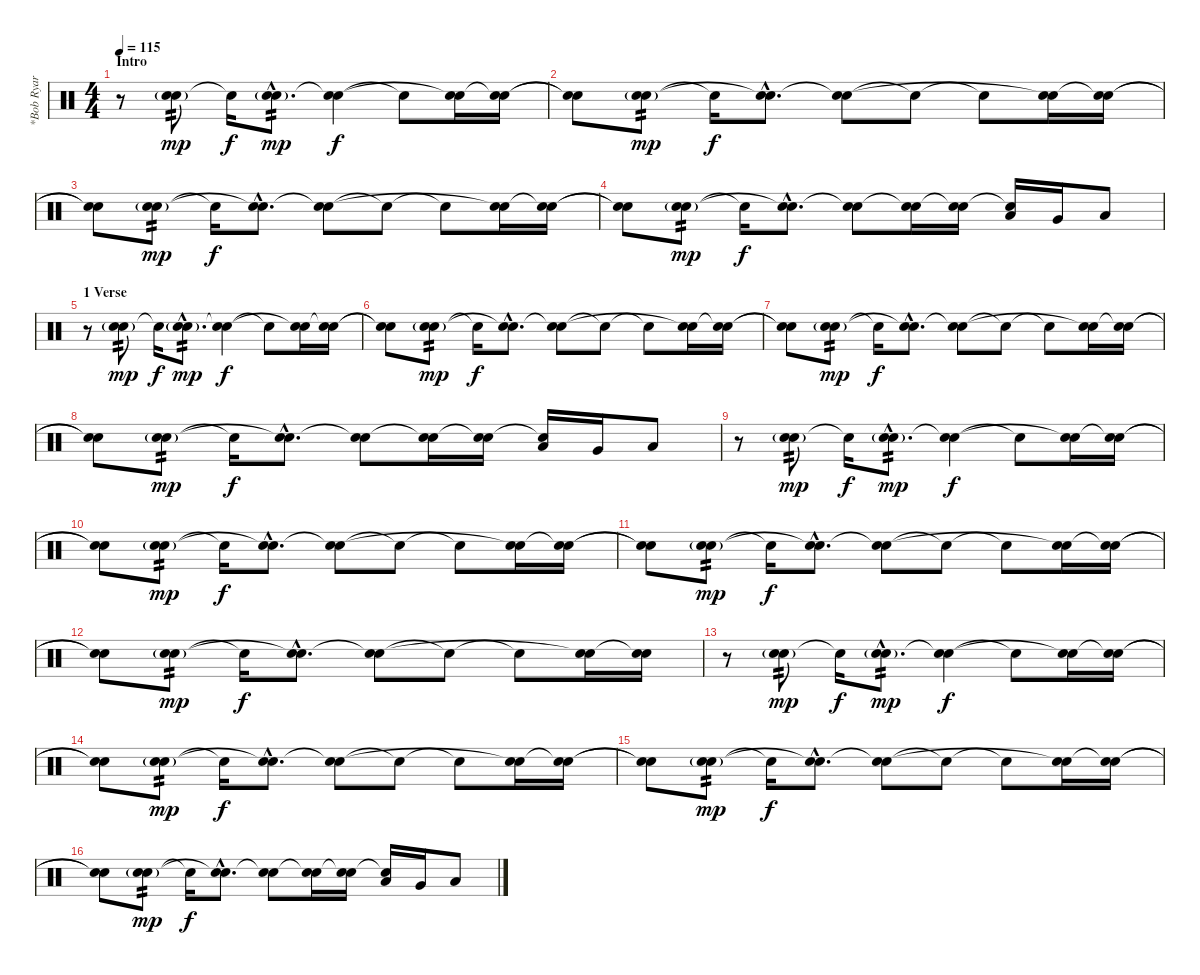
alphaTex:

\track ("*Bob Ryar (Drums)" "*Bob Ryar ") {instrument percussion}
\staff {score}
\articulation defaults
\ts (4 4)
\section ("" "Intro")
\tempo 115
\clef neutral
\ks c
r.8{dy mp} ("Electric Snare (hit)" "Electric Snare (hit)"{g}).8{tp 2} "Snare (hit)"{t}.16{dy f} ("Electric Snare (hit)"{hac} "Electric Snare (hit)"{g hac}).8{d tp 2 dy mp} ("Electric Snare (hit)" "Snare (hit)"{t}).4{dy f} "Snare (hit)"{t}.8 ("Electric Snare (hit)" "Snare (hit)"{t}).16 ("Electric Snare (hit)" "Electric Snare (hit)"{t}).16 |
("Electric Snare (hit)"{t} "Snare (hit)"{t}).8 ("Electric Snare (hit)" "Electric Snare (hit)"{g}).8{tp 2 dy mp} "Snare (hit)"{t}.16{dy f} ("Electric Snare (hit)"{hac} "Snare (hit)"{hac t}).8{d} ("Electric Snare (hit)" "Snare (hit)"{t}).8 "Snare (hit)"{t}.8 "Snare (hit)"{t}.8 ("Electric Snare (hit)" "Snare (hit)"{t}).16 ("Electric Snare (hit)" "Snare (hit)"{t}).16 |
("Electric Snare (hit)"{t} "Snare (hit)"{t}).8 ("Electric Snare (hit)" "Electric Snare (hit)"{g}).8{tp 2 dy mp} "Snare (hit)"{t}.16{dy f} ("Electric Snare (hit)"{hac} "Snare (hit)"{hac t}).8{d} ("Electric Snare (hit)" "Snare (hit)"{t}).8 "Snare (hit)"{t}.8 "Snare (hit)"{t}.8 ("Electric Snare (hit)" "Snare (hit)"{t}).16 ("Electric Snare (hit)" "Snare (hit)"{t}).16 |
("Electric Snare (hit)"{t} "Snare (hit)"{t}).8 ("Electric Snare (hit)" "Electric Snare (hit)"{g}).8{tp 2 dy mp} "Snare (hit)"{t}.16{dy f} ("Electric Snare (hit)"{hac} "Snare (hit)"{hac t}).8{d} ("Electric Snare (hit)" "Snare (hit)"{t}).8 ("Electric Snare (hit)" "Snare (hit)"{t}).16 ("Electric Snare (hit)" "Snare (hit)"{t}).16 ("Low Tom (hit)" "Snare (hit)"{t}).16 "Very Low Tom (hit)".16 "Low Floor Tom (hit)".8 |
\section ("" "1 Verse")
r.8 ("Electric Snare (hit)" "Electric Snare (hit)"{g}).8{tp 2 dy mp} "Snare (hit)"{t}.16{dy f} ("Electric Snare (hit)"{hac} "Electric Snare (hit)"{g hac}).8{d tp 2 dy mp} ("Electric Snare (hit)" "Snare (hit)"{t}).4{dy f} "Snare (hit)"{t}.8 ("Electric Snare (hit)" "Snare (hit)"{t}).16 ("Electric Snare (hit)" "Electric Snare (hit)"{t}).16 |
("Electric Snare (hit)"{t} "Snare (hit)"{t}).8 ("Electric Snare (hit)" "Electric Snare (hit)"{g}).8{tp 2 dy mp} "Snare (hit)"{t}.16{dy f} ("Electric Snare (hit)"{hac} "Snare (hit)"{hac t}).8{d} ("Electric Snare (hit)" "Snare (hit)"{t}).8 "Snare (hit)"{t}.8 "Snare (hit)"{t}.8 ("Electric Snare (hit)" "Snare (hit)"{t}).16 ("Electric Snare (hit)" "Snare (hit)"{t}).16 |
("Electric Snare (hit)"{t} "Snare (hit)"{t}).8 ("Electric Snare (hit)" "Electric Snare (hit)"{g}).8{tp 2 dy mp} "Snare (hit)"{t}.16{dy f} ("Electric Snare (hit)"{hac} "Snare (hit)"{hac t}).8{d} ("Electric Snare (hit)" "Snare (hit)"{t}).8 "Snare (hit)"{t}.8 "Snare (hit)"{t}.8 ("Electric Snare (hit)" "Snare (hit)"{t}).16 ("Electric Snare (hit)" "Snare (hit)"{t}).16 |
("Electric Snare (hit)"{t} "Snare (hit)"{t}).8 ("Electric Snare (hit)" "Electric Snare (hit)"{g}).8{tp 2 dy mp} "Snare (hit)"{t}.16{dy f} ("Electric Snare (hit)"{hac} "Snare (hit)"{hac t}).8{d} ("Electric Snare (hit)" "Snare (hit)"{t}).8 ("Electric Snare (hit)" "Snare (hit)"{t}).16 ("Electric Snare (hit)" "Snare (hit)"{t}).16 ("Low Tom (hit)" "Snare (hit)"{t}).16 "Very Low Tom (hit)".16 "Low Floor Tom (hit)".8 |
r.8 ("Electric Snare (hit)" "Electric Snare (hit)"{g}).8{tp 2 dy mp} "Snare (hit)"{t}.16{dy f} ("Electric Snare (hit)"{hac} "Electric Snare (hit)"{g hac}).8{d tp 2 dy mp} ("Electric Snare (hit)" "Snare (hit)"{t}).4{dy f} "Snare (hit)"{t}.8 ("Electric Snare (hit)" "Snare (hit)"{t}).16 ("Electric Snare (hit)" "Electric Snare (hit)"{t}).16 |
("Electric Snare (hit)"{t} "Snare (hit)"{t}).8 ("Electric Snare (hit)" "Electric Snare (hit)"{g}).8{tp 2 dy mp} "Snare (hit)"{t}.16{dy f} ("Electric Snare (hit)"{hac} "Snare (hit)"{hac t}).8{d} ("Electric Snare (hit)" "Snare (hit)"{t}).8 "Snare (hit)"{t}.8 "Snare (hit)"{t}.8 ("Electric Snare (hit)" "Snare (hit)"{t}).16 ("Electric Snare (hit)" "Snare (hit)"{t}).16 |
("Electric Snare (hit)"{t} "Snare (hit)"{t}).8 ("Electric Snare (hit)" "Electric Snare (hit)"{g}).8{tp 2 dy mp} "Snare (hit)"{t}.16{dy f} ("Electric Snare (hit)"{hac} "Snare (hit)"{hac t}).8{d} ("Electric Snare (hit)" "Snare (hit)"{t}).8 "Snare (hit)"{t}.8 "Snare (hit)"{t}.8 ("Electric Snare (hit)" "Snare (hit)"{t}).16 ("Electric Snare (hit)" "Snare (hit)"{t}).16 |
("Electric Snare (hit)"{t} "Snare (hit)"{t}).8 ("Electric Snare (hit)" "Electric Snare (hit)"{g}).8{tp 2 dy mp} "Snare (hit)"{t}.16{dy f} ("Electric Snare (hit)"{hac} "Snare (hit)"{hac t}).8{d} ("Electric Snare (hit)" "Snare (hit)"{t}).8 "Snare (hit)"{t}.8 "Snare (hit)"{t}.8 ("Electric Snare (hit)" "Snare (hit)"{t}).16 ("Electric Snare (hit)" "Snare (hit)"{t}).16 |
r.8 ("Electric Snare (hit)" "Electric Snare (hit)"{g}).8{tp 2 dy mp} "Snare (hit)"{t}.16{dy f} ("Electric Snare (hit)"{hac} "Electric Snare (hit)"{g hac}).8{d tp 2 dy mp} ("Electric Snare (hit)" "Snare (hit)"{t}).4{dy f} "Snare (hit)"{t}.8 ("Electric Snare (hit)" "Snare (hit)"{t}).16 ("Electric Snare (hit)" "Electric Snare (hit)"{t}).16 |
("Electric Snare (hit)"{t} "Snare (hit)"{t}).8 ("Electric Snare (hit)" "Electric Snare (hit)"{g}).8{tp 2 dy mp} "Snare (hit)"{t}.16{dy f} ("Electric Snare (hit)"{hac} "Snare (hit)"{hac t}).8{d} ("Electric Snare (hit)" "Snare (hit)"{t}).8 "Snare (hit)"{t}.8 "Snare (hit)"{t}.8 ("Electric Snare (hit)" "Snare (hit)"{t}).16 ("Electric Snare (hit)" "Snare (hit)"{t}).16 |
("Electric Snare (hit)"{t} "Snare (hit)"{t}).8 ("Electric Snare (hit)" "Electric Snare (hit)"{g}).8{tp 2 dy mp} "Snare (hit)"{t}.16{dy f} ("Electric Snare (hit)"{hac} "Snare (hit)"{hac t}).8{d} ("Electric Snare (hit)" "Snare (hit)"{t}).8 "Snare (hit)"{t}.8 "Snare (hit)"{t}.8 ("Electric Snare (hit)" "Snare (hit)"{t}).16 ("Electric Snare (hit)" "Snare (hit)"{t}).16 |
("Electric Snare (hit)"{t} "Snare (hit)"{t}).8 ("Electric Snare (hit)" "Electric Snare (hit)"{g}).8{tp 2 dy mp} "Snare (hit)"{t}.16{dy f} ("Electric Snare (hit)"{hac} "Snare (hit)"{hac t}).8{d} ("Electric Snare (hit)" "Snare (hit)"{t}).8 ("Electric Snare (hit)" "Snare (hit)"{t}).16 ("Electric Snare (hit)" "Snare (hit)"{t}).16 ("Low Tom (hit)" "Snare (hit)"{t}).16 "Very Low Tom (hit)".16 "Low Floor Tom (hit)".8
